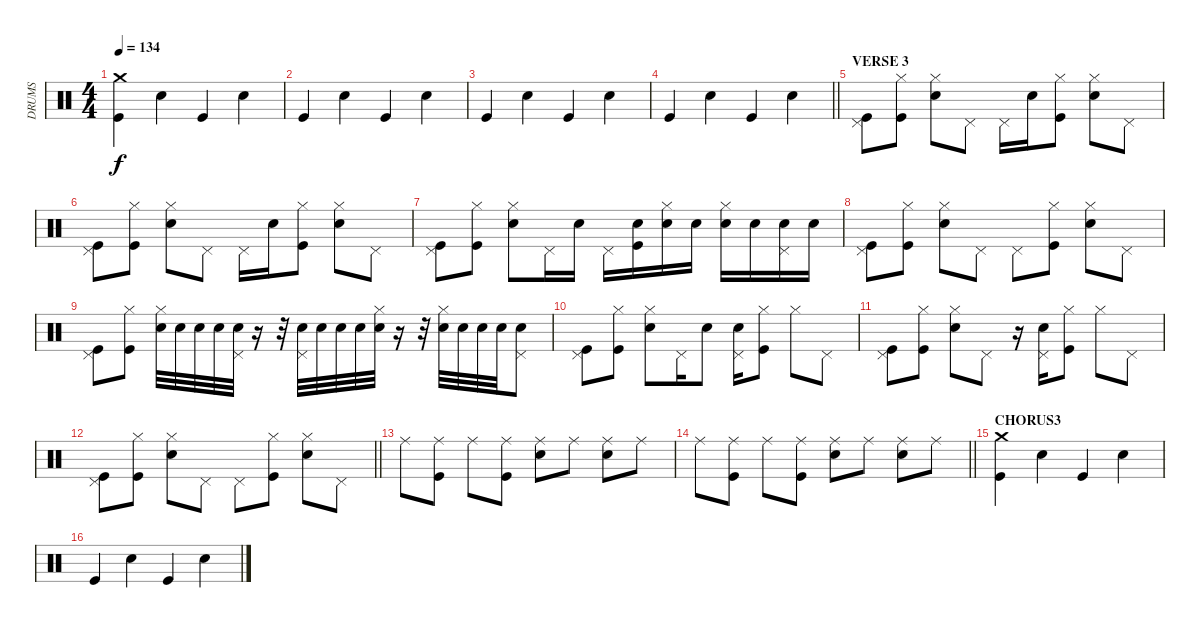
\track ("DRUMS" "DRUMS") {instrument percussion}
\staff {score}
\articulation defaults
\ts (4 4)
\tempo 134
\clef neutral
\ks c
("Crash medium (hit)" "Kick (hit)").4{dy f} "Snare (hit) 2".4 "Kick (hit)".4 "Snare (hit) 2".4 |
"Kick (hit)".4 "Snare (hit) 2".4 "Kick (hit)".4 "Snare (hit) 2".4 |
"Kick (hit)".4 "Snare (hit) 2".4 "Kick (hit)".4 "Snare (hit) 2".4 |
\barLineRight lightlight "Kick (hit)".4 "Snare (hit) 2".4 "Kick (hit)".4 "Snare (hit) 2".4
|
\section ("" "VERSE 3")
("Pedal Hi-Hat (hit)" "Kick (hit)").8 ("Hi-Hat (closed)" "Kick (hit)").8 ("Hi-Hat (closed)" "Snare (hit) 2").8 "Pedal Hi-Hat (hit)".8 "Pedal Hi-Hat (hit)".16 "Snare (hit) 2".16 ("Hi-Hat (closed)" "Kick (hit)").8 ("Hi-Hat (closed)" "Snare (hit) 2").8 "Pedal Hi-Hat (hit)".8 |
("Pedal Hi-Hat (hit)" "Kick (hit)").8 ("Hi-Hat (closed)" "Kick (hit)").8 ("Hi-Hat (closed)" "Snare (hit) 2").8 "Pedal Hi-Hat (hit)".8 "Pedal Hi-Hat (hit)".16 "Snare (hit) 2".16 ("Hi-Hat (closed)" "Kick (hit)").8 ("Hi-Hat (closed)" "Snare (hit) 2").8 "Pedal Hi-Hat (hit)".8 |
("Pedal Hi-Hat (hit)" "Kick (hit)").8 ("Hi-Hat (closed)" "Kick (hit)").8 ("Hi-Hat (closed)" "Snare (hit) 2").8 "Pedal Hi-Hat (hit)".16 "Snare (hit) 2".16 "Pedal Hi-Hat (hit)".16 ("Snare (hit) 2" "Kick (hit)").16 ("Hi-Hat (closed)" "Snare (hit) 2").16 "Snare (hit) 2".16 ("Hi-Hat (closed)" "Snare (hit) 2").16 "Snare (hit) 2".16 ("Pedal Hi-Hat (hit)" "Snare (hit) 2").16 "Snare (hit) 2".16 |
("Pedal Hi-Hat (hit)" "Kick (hit)").8 ("Hi-Hat (closed)" "Kick (hit)").8 ("Hi-Hat (closed)" "Snare (hit) 2").8 "Pedal Hi-Hat (hit)".8 "Pedal Hi-Hat (hit)".8 ("Hi-Hat (closed)" "Kick (hit)").8 ("Hi-Hat (closed)" "Snare (hit) 2").8 "Pedal Hi-Hat (hit)".8 |
("Pedal Hi-Hat (hit)" "Kick (hit)").8 ("Hi-Hat (closed)" "Kick (hit)").8 ("Hi-Hat (closed)" "Snare (hit) 2").32 "Snare (hit) 2".32 "Snare (hit) 2".32 "Snare (hit) 2".32 ("Pedal Hi-Hat (hit)" "Snare (hit) 2").32 r.16 r.32 ("Pedal Hi-Hat (hit)" "Snare (hit) 2").32 "Snare (hit) 2".32 "Snare (hit) 2".32 "Snare (hit) 2".32 ("Hi-Hat (closed)" "Snare (hit) 2").32 r.16 r.32 ("Hi-Hat (closed)" "Snare (hit) 2").32 "Snare (hit) 2".32 "Snare (hit) 2".32 "Snare (hit) 2".32 ("Pedal Hi-Hat (hit)" "Snare (hit) 2").8 |
("Pedal Hi-Hat (hit)" "Kick (hit)").8 ("Hi-Hat (closed)" "Kick (hit)").8 ("Hi-Hat (closed)" "Snare (hit) 2").8 "Pedal Hi-Hat (hit)".16 "Snare (hit) 2".8 ("Pedal Hi-Hat (hit)" "Snare (hit) 2").16 ("Hi-Hat (closed)" "Kick (hit)").8 "Hi-Hat (closed)".8 "Pedal Hi-Hat (hit)".8 |
("Pedal Hi-Hat (hit)" "Kick (hit)").8 ("Hi-Hat (closed)" "Kick (hit)").8 ("Hi-Hat (closed)" "Snare (hit) 2").8 "Pedal Hi-Hat (hit)".8 r.16 ("Pedal Hi-Hat (hit)" "Snare (hit) 2").16 ("Hi-Hat (closed)" "Kick (hit)").8 "Hi-Hat (closed)".8 "Pedal Hi-Hat (hit)".8 |
\barLineRight lightlight
("Pedal Hi-Hat (hit)" "Kick (hit)").8 ("Hi-Hat (closed)" "Kick (hit)").8 ("Hi-Hat (closed)" "Snare (hit) 2").8 "Pedal Hi-Hat (hit)".8 "Pedal Hi-Hat (hit)".8 ("Hi-Hat (closed)" "Kick (hit)").8 ("Hi-Hat (closed)" "Snare (hit) 2").8 "Pedal Hi-Hat (hit)".8 |
"Ride (middle)".8 ("Ride (middle)" "Kick (hit)").8 "Ride (middle)".8 ("Ride (middle)" "Kick (hit)").8 ("Ride (middle)" "Snare (hit) 2").8 "Ride (middle)".8 ("Ride (middle)" "Snare (hit) 2").8 "Ride (middle)".8 |
\barLineRight lightlight "Ride (middle)".8
("Ride (middle)" "Kick (hit)").8 "Ride (middle)".8 ("Ride (middle)" "Kick (hit)").8 ("Ride (middle)" "Snare (hit) 2").8 "Ride (middle)".8 ("Ride (middle)" "Snare (hit) 2").8 "Ride (middle)".8 |
\section ("" "CHORUS3")
("Crash medium (hit)" "Kick (hit)").4 "Snare (hit) 2".4 "Kick (hit)".4 "Snare (hit) 2".4 |
"Kick (hit)".4 "Snare (hit) 2".4 "Kick (hit)".4 "Snare (hit) 2".4
